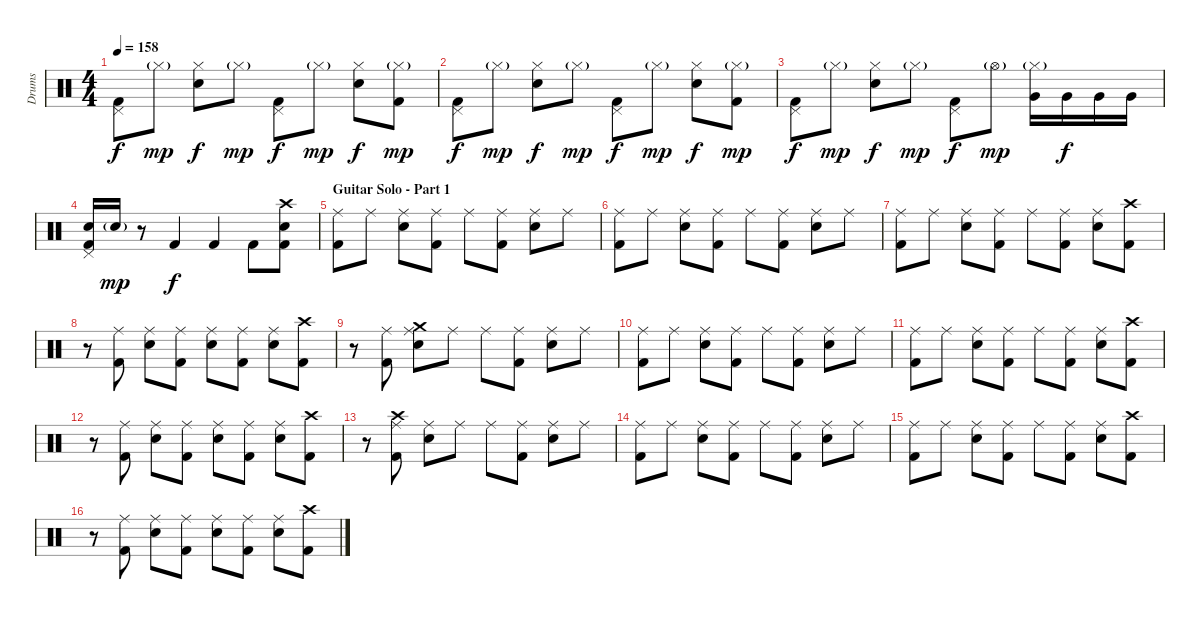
\track ("Drums" "Drums") {instrument percussion}
\staff {score}
\articulation defaults
\ts (4 4)
\tempo 158
\clef neutral
\ks c
("Pedal Hi-Hat (hit)" "Kick (hit) 2").8{dy f} "Hi-Hat (closed)"{g}.8{dy mp} ("Hi-Hat (closed)" "Snare (hit) 2").8{dy f} "Hi-Hat (closed)"{g}.8{dy mp} ("Pedal Hi-Hat (hit)" "Kick (hit) 2").8{dy f} "Hi-Hat (closed)"{g}.8{dy mp} ("Hi-Hat (closed)" "Snare (hit) 2").8{dy f} ("Hi-Hat (closed)"{g} "Kick (hit) 2").8{dy mp} |
("Pedal Hi-Hat (hit)" "Kick (hit) 2").8{dy f} "Hi-Hat (closed)"{g}.8{dy mp} ("Hi-Hat (closed)" "Snare (hit) 2").8{dy f} "Hi-Hat (closed)"{g}.8{dy mp} ("Pedal Hi-Hat (hit)" "Kick (hit) 2").8{dy f} "Hi-Hat (closed)"{g}.8{dy mp} ("Hi-Hat (closed)" "Snare (hit) 2").8{dy f} ("Hi-Hat (closed)"{g} "Kick (hit) 2").8{dy mp} |
("Pedal Hi-Hat (hit)" "Kick (hit) 2").8{dy f} "Hi-Hat (closed)"{g}.8{dy mp} ("Hi-Hat (closed)" "Snare (hit) 2").8{dy f} "Hi-Hat (closed)"{g}.8{dy mp} ("Pedal Hi-Hat (hit)" "Kick (hit) 2").8{dy f} "Hi-Hat (open)"{g}.8{dy mp} ("Hi-Hat (closed)"{g} "Very Low Tom (hit)").16 "Very Low Tom (hit)".16{dy f} "Very Low Tom (hit)".16 "Very Low Tom (hit)".16 |
("Pedal Hi-Hat (hit)" "Snare (hit) 2" "Kick (hit) 2").16 "Snare (hit) 2"{g}.16{dy mp} r.8 "Kick (hit) 2".4{dy f} "Kick (hit) 2".4 "Kick (hit) 2".8 ("Crash high (hit)" "Snare (hit) 2" "Kick (hit) 2").8 |
\section ("" "Guitar Solo - Part 1")
("Ride (middle)" "Kick (hit) 2").8 "Ride (middle)".8 ("Ride (middle)" "Snare (hit) 2").8 ("Ride (middle)" "Kick (hit) 2").8 "Ride (middle)".8 ("Ride (middle)" "Kick (hit) 2").8 ("Ride (middle)" "Snare (hit) 2").8 "Ride (middle)".8 |
("Ride (middle)" "Kick (hit) 2").8 "Ride (middle)".8 ("Ride (middle)" "Snare (hit) 2").8 ("Ride (middle)" "Kick (hit) 2").8 "Ride (middle)".8 ("Ride (middle)" "Kick (hit) 2").8 ("Ride (middle)" "Snare (hit) 2").8 "Ride (middle)".8 |
("Ride (middle)" "Kick (hit) 2").8 "Ride (middle)".8 ("Ride (middle)" "Snare (hit) 2").8 ("Ride (middle)" "Kick (hit) 2").8 "Ride (middle)".8 ("Ride (middle)" "Kick (hit) 2").8 ("Ride (middle)" "Snare (hit) 2").8 ("Crash high (hit)" "Kick (hit) 2").8 |
r.8 ("Ride (middle)" "Kick (hit) 2").8 ("Ride (middle)" "Snare (hit) 2").8 ("Ride (middle)" "Kick (hit) 2").8 ("Ride (middle)" "Snare (hit) 2").8 ("Ride (middle)" "Kick (hit) 2").8 ("Ride (middle)" "Snare (hit) 2").8 ("Crash high (hit)" "Kick (hit) 2").8 |
r.8 ("Ride (middle)" "Kick (hit) 2").8 ("Crash medium (hit)" "Ride (middle)" "Snare (hit) 2").8 "Ride (middle)".8 "Ride (middle)".8 ("Ride (middle)" "Kick (hit) 2").8 ("Ride (middle)" "Snare (hit) 2").8 "Ride (middle)".8 |
("Ride (middle)" "Kick (hit) 2").8 "Ride (middle)".8 ("Ride (middle)" "Snare (hit) 2").8 ("Ride (middle)" "Kick (hit) 2").8 "Ride (middle)".8 ("Ride (middle)" "Kick (hit) 2").8 ("Ride (middle)" "Snare (hit) 2").8 "Ride (middle)".8 |
("Ride (middle)" "Kick (hit) 2").8 "Ride (middle)".8 ("Ride (middle)" "Snare (hit) 2").8 ("Ride (middle)" "Kick (hit) 2").8 "Ride (middle)".8 ("Ride (middle)" "Kick (hit) 2").8 ("Ride (middle)" "Snare (hit) 2").8 ("Crash high (hit)" "Kick (hit) 2").8 |
r.8 ("Ride (middle)" "Kick (hit) 2").8 ("Ride (middle)" "Snare (hit) 2").8 ("Ride (middle)" "Kick (hit) 2").8 ("Ride (middle)" "Snare (hit) 2").8 ("Ride (middle)" "Kick (hit) 2").8 ("Ride (middle)" "Snare (hit) 2").8 ("Crash high (hit)" "Kick (hit) 2").8 |
r.8 ("Crash high (hit)" "Ride (middle)" "Kick (hit) 2").8 ("Ride (middle)" "Snare (hit) 2").8 "Ride (middle)".8 "Ride (middle)".8 ("Ride (middle)" "Kick (hit) 2").8 ("Ride (middle)" "Snare (hit) 2").8 "Ride (middle)".8 |
("Ride (middle)" "Kick (hit) 2").8 "Ride (middle)".8 ("Ride (middle)" "Snare (hit) 2").8 ("Ride (middle)" "Kick (hit) 2").8 "Ride (middle)".8 ("Ride (middle)" "Kick (hit) 2").8 ("Ride (middle)" "Snare (hit) 2").8 "Ride (middle)".8 |
("Ride (middle)" "Kick (hit) 2").8 "Ride (middle)".8 ("Ride (middle)" "Snare (hit) 2").8 ("Ride (middle)" "Kick (hit) 2").8 "Ride (middle)".8 ("Ride (middle)" "Kick (hit) 2").8 ("Ride (middle)" "Snare (hit) 2").8 ("Crash high (hit)" "Kick (hit) 2").8 |
r.8 ("Ride (middle)" "Kick (hit) 2").8 ("Ride (middle)" "Snare (hit) 2").8 ("Ride (middle)" "Kick (hit) 2").8 ("Ride (middle)" "Snare (hit) 2").8 ("Ride (middle)" "Kick (hit) 2").8 ("Ride (middle)" "Snare (hit) 2").8 ("Crash high (hit)" "Kick (hit) 2").8
